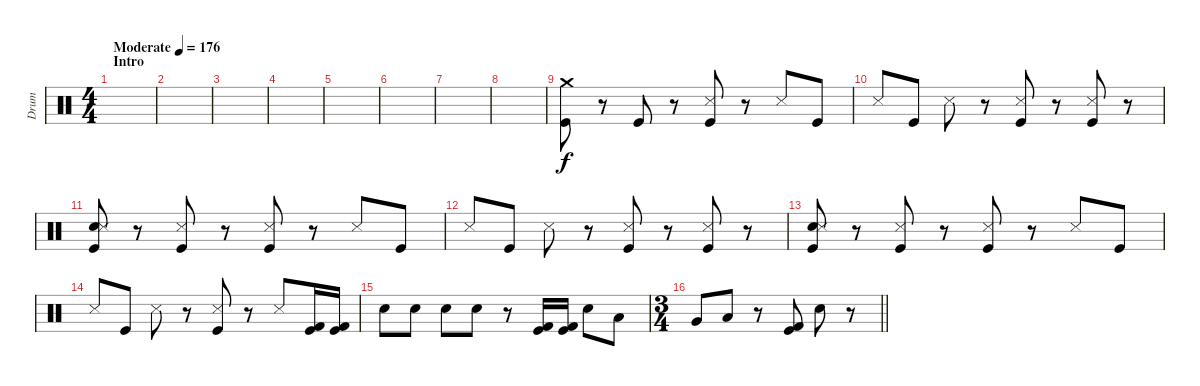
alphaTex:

\track ("Drum" "Drum") {instrument percussion}
\staff {score}
\articulation defaults
\ts (4 4)
\section ("" "Intro")
\tempo (176 "Moderate")
\clef neutral
\ks c
|
|
|
|
|
|
|
|
("Crash medium (hit)" "Kick (hit)").8 r.8 "Kick (hit)".8 r.8 ("Snare (side stick) 3" "Kick (hit)").8 r.8 "Snare (side stick) 3".8 "Kick (hit)".8 |
"Snare (side stick) 3".8 "Kick (hit)".8 "Snare (side stick) 3".8 r.8 ("Snare (side stick) 3" "Kick (hit)").8 r.8 ("Snare (side stick) 3" "Kick (hit)").8 r.8 |
("Electric Snare (hit)" "Snare (side stick) 3" "Kick (hit)").8 r.8 ("Snare (side stick) 3" "Kick (hit)").8 r.8 ("Snare (side stick) 3" "Kick (hit)").8 r.8 "Snare (side stick) 3".8 "Kick (hit)".8 |
"Snare (side stick) 3".8 "Kick (hit)".8 "Snare (side stick) 3".8 r.8 ("Snare (side stick) 3" "Kick (hit)").8 r.8 ("Snare (side stick) 3" "Kick (hit)").8 r.8 |
("Electric Snare (hit)" "Snare (side stick) 3" "Kick (hit)").8 r.8 ("Snare (side stick) 3" "Kick (hit)").8 r.8 ("Snare (side stick) 3" "Kick (hit)").8 r.8 "Snare (side stick) 3".8 "Kick (hit)".8 |
"Snare (side stick) 3".8 "Kick (hit)".8 "Snare (side stick) 3".8 r.8 ("Snare (side stick) 3" "Kick (hit)").8 r.8 "Snare (side stick) 3".8 ("Kick (hit)" "Kick (hit) 2").16 ("Kick (hit)" "Kick (hit) 2").16 |
"Electric Snare (hit)".8 "Electric Snare (hit)".8 "Electric Snare (hit)".8 "Electric Snare (hit)".8 r.8 ("Kick (hit)" "Kick (hit) 2").16 ("Kick (hit)" "Kick (hit) 2").16 "Electric Snare (hit)".8 "Low Tom (hit)".8 |
\ts (3 4)
\barLineRight lightlight "Very Low Tom (hit)".8 "Low Floor Tom (hit)".8
r.8 ("Kick (hit)" "Kick (hit) 2").8 "Electric Snare (hit)".8 r.8
